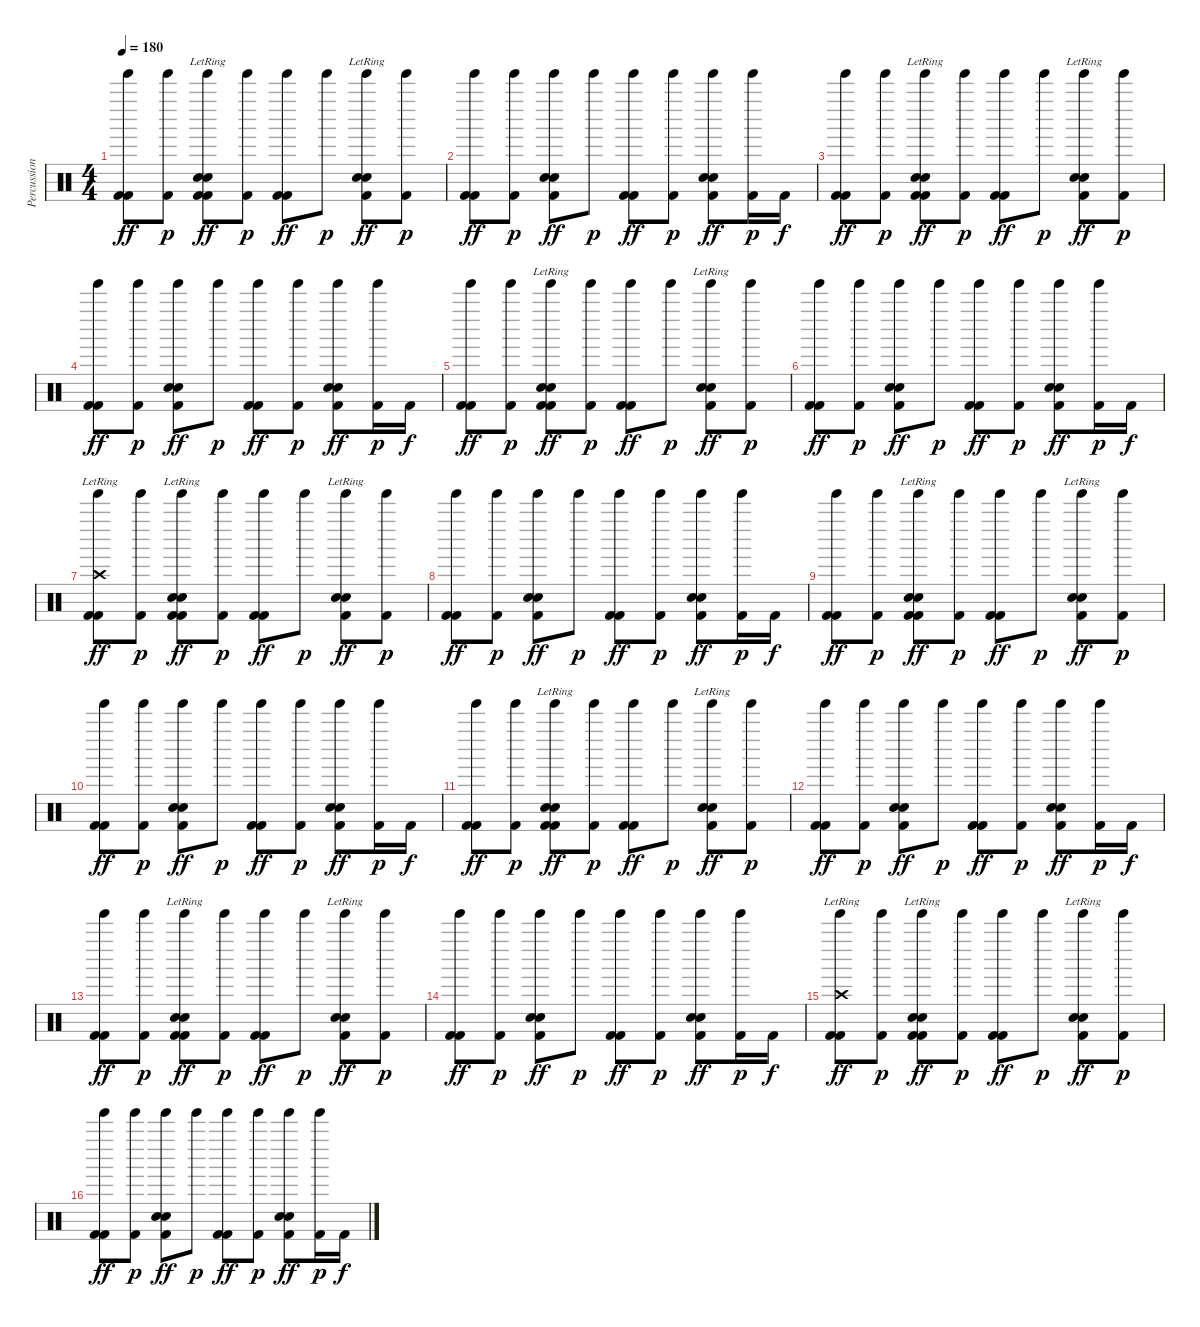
\track ("Percussion" "Percussion") {instrument percussion}
\staff {score}
\articulation defaults
\ts (4 4)
\tempo 180
\clef neutral
\ks c
("Tinkle Bell (hit)" "Kick (hit) 2" "Kick (hit) 2").8{dy ff} ("Tinkle Bell (hit)" "Kick (hit) 2").8{dy p} ("Tinkle Bell (hit)" "Snare (hit) 2"{lr} "Electric Snare (hit)" "Kick (hit) 2" "Kick (hit) 2").8{dy ff} ("Tinkle Bell (hit)" "Kick (hit) 2").8{dy p} ("Tinkle Bell (hit)" "Kick (hit) 2" "Kick (hit) 2").8{dy ff} "Tinkle Bell (hit)".8{dy p} ("Tinkle Bell (hit)" "Snare (hit) 2"{lr} "Electric Snare (hit)" "Kick (hit) 2").8{dy ff} ("Tinkle Bell (hit)" "Kick (hit) 2").8{dy p} |
("Tinkle Bell (hit)" "Kick (hit) 2" "Kick (hit) 2").8{dy ff} ("Tinkle Bell (hit)" "Kick (hit) 2").8{dy p} ("Tinkle Bell (hit)" "Snare (hit) 2" "Electric Snare (hit)" "Kick (hit) 2").8{dy ff} "Tinkle Bell (hit)".8{dy p} ("Tinkle Bell (hit)" "Kick (hit) 2" "Kick (hit) 2").8{dy ff} ("Tinkle Bell (hit)" "Kick (hit) 2").8{dy p} ("Tinkle Bell (hit)" "Snare (hit) 2" "Electric Snare (hit)" "Kick (hit) 2").8{dy ff} ("Tinkle Bell (hit)" "Kick (hit) 2").16{dy p} "Kick (hit) 2".16{dy f} |
("Tinkle Bell (hit)" "Kick (hit) 2" "Kick (hit) 2").8{dy ff} ("Tinkle Bell (hit)" "Kick (hit) 2").8{dy p} ("Tinkle Bell (hit)" "Snare (hit) 2"{lr} "Electric Snare (hit)" "Kick (hit) 2" "Kick (hit) 2").8{dy ff} ("Tinkle Bell (hit)" "Kick (hit) 2").8{dy p} ("Tinkle Bell (hit)" "Kick (hit) 2" "Kick (hit) 2").8{dy ff} "Tinkle Bell (hit)".8{dy p} ("Tinkle Bell (hit)" "Snare (hit) 2"{lr} "Electric Snare (hit)" "Kick (hit) 2").8{dy ff} ("Tinkle Bell (hit)" "Kick (hit) 2").8{dy p} |
("Tinkle Bell (hit)" "Kick (hit) 2" "Kick (hit) 2").8{dy ff} ("Tinkle Bell (hit)" "Kick (hit) 2").8{dy p} ("Tinkle Bell (hit)" "Snare (hit) 2" "Electric Snare (hit)" "Kick (hit) 2").8{dy ff} "Tinkle Bell (hit)".8{dy p} ("Tinkle Bell (hit)" "Kick (hit) 2" "Kick (hit) 2").8{dy ff} ("Tinkle Bell (hit)" "Kick (hit) 2").8{dy p} ("Tinkle Bell (hit)" "Snare (hit) 2" "Electric Snare (hit)" "Kick (hit) 2").8{dy ff} ("Tinkle Bell (hit)" "Kick (hit) 2").16{dy p} "Kick (hit) 2".16{dy f} |
("Tinkle Bell (hit)" "Kick (hit) 2" "Kick (hit) 2").8{dy ff} ("Tinkle Bell (hit)" "Kick (hit) 2").8{dy p} ("Tinkle Bell (hit)" "Snare (hit) 2"{lr} "Electric Snare (hit)" "Kick (hit) 2" "Kick (hit) 2").8{dy ff} ("Tinkle Bell (hit)" "Kick (hit) 2").8{dy p} ("Tinkle Bell (hit)" "Kick (hit) 2" "Kick (hit) 2").8{dy ff} "Tinkle Bell (hit)".8{dy p} ("Tinkle Bell (hit)" "Snare (hit) 2"{lr} "Electric Snare (hit)" "Kick (hit) 2").8{dy ff} ("Tinkle Bell (hit)" "Kick (hit) 2").8{dy p} |
("Tinkle Bell (hit)" "Kick (hit) 2" "Kick (hit) 2").8{dy ff} ("Tinkle Bell (hit)" "Kick (hit) 2").8{dy p} ("Tinkle Bell (hit)" "Snare (hit) 2" "Electric Snare (hit)" "Kick (hit) 2").8{dy ff} "Tinkle Bell (hit)".8{dy p} ("Tinkle Bell (hit)" "Kick (hit) 2" "Kick (hit) 2").8{dy ff} ("Tinkle Bell (hit)" "Kick (hit) 2").8{dy p} ("Tinkle Bell (hit)" "Snare (hit) 2" "Electric Snare (hit)" "Kick (hit) 2").8{dy ff} ("Tinkle Bell (hit)" "Kick (hit) 2").16{dy p} "Kick (hit) 2".16{dy f} |
("Tinkle Bell (hit)" "Crash high (hit)"{lr} "Kick (hit) 2" "Kick (hit) 2").8{dy ff} ("Tinkle Bell (hit)" "Kick (hit) 2").8{dy p} ("Tinkle Bell (hit)" "Snare (hit) 2"{lr} "Electric Snare (hit)" "Kick (hit) 2" "Kick (hit) 2").8{dy ff} ("Tinkle Bell (hit)" "Kick (hit) 2").8{dy p} ("Tinkle Bell (hit)" "Kick (hit) 2" "Kick (hit) 2").8{dy ff} "Tinkle Bell (hit)".8{dy p} ("Tinkle Bell (hit)" "Snare (hit) 2"{lr} "Electric Snare (hit)" "Kick (hit) 2").8{dy ff} ("Tinkle Bell (hit)" "Kick (hit) 2").8{dy p} |
("Tinkle Bell (hit)" "Kick (hit) 2" "Kick (hit) 2").8{dy ff} ("Tinkle Bell (hit)" "Kick (hit) 2").8{dy p} ("Tinkle Bell (hit)" "Snare (hit) 2" "Electric Snare (hit)" "Kick (hit) 2").8{dy ff} "Tinkle Bell (hit)".8{dy p} ("Tinkle Bell (hit)" "Kick (hit) 2" "Kick (hit) 2").8{dy ff} ("Tinkle Bell (hit)" "Kick (hit) 2").8{dy p} ("Tinkle Bell (hit)" "Snare (hit) 2" "Electric Snare (hit)" "Kick (hit) 2").8{dy ff} ("Tinkle Bell (hit)" "Kick (hit) 2").16{dy p} "Kick (hit) 2".16{dy f} |
("Tinkle Bell (hit)" "Kick (hit) 2" "Kick (hit) 2").8{dy ff} ("Tinkle Bell (hit)" "Kick (hit) 2").8{dy p} ("Tinkle Bell (hit)" "Snare (hit) 2"{lr} "Electric Snare (hit)" "Kick (hit) 2" "Kick (hit) 2").8{dy ff} ("Tinkle Bell (hit)" "Kick (hit) 2").8{dy p} ("Tinkle Bell (hit)" "Kick (hit) 2" "Kick (hit) 2").8{dy ff} "Tinkle Bell (hit)".8{dy p} ("Tinkle Bell (hit)" "Snare (hit) 2"{lr} "Electric Snare (hit)" "Kick (hit) 2").8{dy ff} ("Tinkle Bell (hit)" "Kick (hit) 2").8{dy p} |
("Tinkle Bell (hit)" "Kick (hit) 2" "Kick (hit) 2").8{dy ff} ("Tinkle Bell (hit)" "Kick (hit) 2").8{dy p} ("Tinkle Bell (hit)" "Snare (hit) 2" "Electric Snare (hit)" "Kick (hit) 2").8{dy ff} "Tinkle Bell (hit)".8{dy p} ("Tinkle Bell (hit)" "Kick (hit) 2" "Kick (hit) 2").8{dy ff} ("Tinkle Bell (hit)" "Kick (hit) 2").8{dy p} ("Tinkle Bell (hit)" "Snare (hit) 2" "Electric Snare (hit)" "Kick (hit) 2").8{dy ff} ("Tinkle Bell (hit)" "Kick (hit) 2").16{dy p} "Kick (hit) 2".16{dy f} |
("Tinkle Bell (hit)" "Kick (hit) 2" "Kick (hit) 2").8{dy ff} ("Tinkle Bell (hit)" "Kick (hit) 2").8{dy p} ("Tinkle Bell (hit)" "Snare (hit) 2"{lr} "Electric Snare (hit)" "Kick (hit) 2" "Kick (hit) 2").8{dy ff} ("Tinkle Bell (hit)" "Kick (hit) 2").8{dy p} ("Tinkle Bell (hit)" "Kick (hit) 2" "Kick (hit) 2").8{dy ff} "Tinkle Bell (hit)".8{dy p} ("Tinkle Bell (hit)" "Snare (hit) 2"{lr} "Electric Snare (hit)" "Kick (hit) 2").8{dy ff} ("Tinkle Bell (hit)" "Kick (hit) 2").8{dy p} |
("Tinkle Bell (hit)" "Kick (hit) 2" "Kick (hit) 2").8{dy ff} ("Tinkle Bell (hit)" "Kick (hit) 2").8{dy p} ("Tinkle Bell (hit)" "Snare (hit) 2" "Electric Snare (hit)" "Kick (hit) 2").8{dy ff} "Tinkle Bell (hit)".8{dy p} ("Tinkle Bell (hit)" "Kick (hit) 2" "Kick (hit) 2").8{dy ff} ("Tinkle Bell (hit)" "Kick (hit) 2").8{dy p} ("Tinkle Bell (hit)" "Snare (hit) 2" "Electric Snare (hit)" "Kick (hit) 2").8{dy ff} ("Tinkle Bell (hit)" "Kick (hit) 2").16{dy p} "Kick (hit) 2".16{dy f} |
("Tinkle Bell (hit)" "Kick (hit) 2" "Kick (hit) 2").8{dy ff} ("Tinkle Bell (hit)" "Kick (hit) 2").8{dy p} ("Tinkle Bell (hit)" "Snare (hit) 2"{lr} "Electric Snare (hit)" "Kick (hit) 2" "Kick (hit) 2").8{dy ff} ("Tinkle Bell (hit)" "Kick (hit) 2").8{dy p} ("Tinkle Bell (hit)" "Kick (hit) 2" "Kick (hit) 2").8{dy ff} "Tinkle Bell (hit)".8{dy p} ("Tinkle Bell (hit)" "Snare (hit) 2"{lr} "Electric Snare (hit)" "Kick (hit) 2").8{dy ff} ("Tinkle Bell (hit)" "Kick (hit) 2").8{dy p} |
("Tinkle Bell (hit)" "Kick (hit) 2" "Kick (hit) 2").8{dy ff} ("Tinkle Bell (hit)" "Kick (hit) 2").8{dy p} ("Tinkle Bell (hit)" "Snare (hit) 2" "Electric Snare (hit)" "Kick (hit) 2").8{dy ff} "Tinkle Bell (hit)".8{dy p} ("Tinkle Bell (hit)" "Kick (hit) 2" "Kick (hit) 2").8{dy ff} ("Tinkle Bell (hit)" "Kick (hit) 2").8{dy p} ("Tinkle Bell (hit)" "Snare (hit) 2" "Electric Snare (hit)" "Kick (hit) 2").8{dy ff} ("Tinkle Bell (hit)" "Kick (hit) 2").16{dy p} "Kick (hit) 2".16{dy f} |
("Tinkle Bell (hit)" "Crash high (hit)"{lr} "Kick (hit) 2" "Kick (hit) 2").8{dy ff} ("Tinkle Bell (hit)" "Kick (hit) 2").8{dy p} ("Tinkle Bell (hit)" "Snare (hit) 2"{lr} "Electric Snare (hit)" "Kick (hit) 2" "Kick (hit) 2").8{dy ff} ("Tinkle Bell (hit)" "Kick (hit) 2").8{dy p} ("Tinkle Bell (hit)" "Kick (hit) 2" "Kick (hit) 2").8{dy ff} "Tinkle Bell (hit)".8{dy p} ("Tinkle Bell (hit)" "Snare (hit) 2"{lr} "Electric Snare (hit)" "Kick (hit) 2").8{dy ff} ("Tinkle Bell (hit)" "Kick (hit) 2").8{dy p} |
("Tinkle Bell (hit)" "Kick (hit) 2" "Kick (hit) 2").8{dy ff} ("Tinkle Bell (hit)" "Kick (hit) 2").8{dy p} ("Tinkle Bell (hit)" "Snare (hit) 2" "Electric Snare (hit)" "Kick (hit) 2").8{dy ff} "Tinkle Bell (hit)".8{dy p} ("Tinkle Bell (hit)" "Kick (hit) 2" "Kick (hit) 2").8{dy ff} ("Tinkle Bell (hit)" "Kick (hit) 2").8{dy p} ("Tinkle Bell (hit)" "Snare (hit) 2" "Electric Snare (hit)" "Kick (hit) 2").8{dy ff} ("Tinkle Bell (hit)" "Kick (hit) 2").16{dy p} "Kick (hit) 2".16{dy f}
